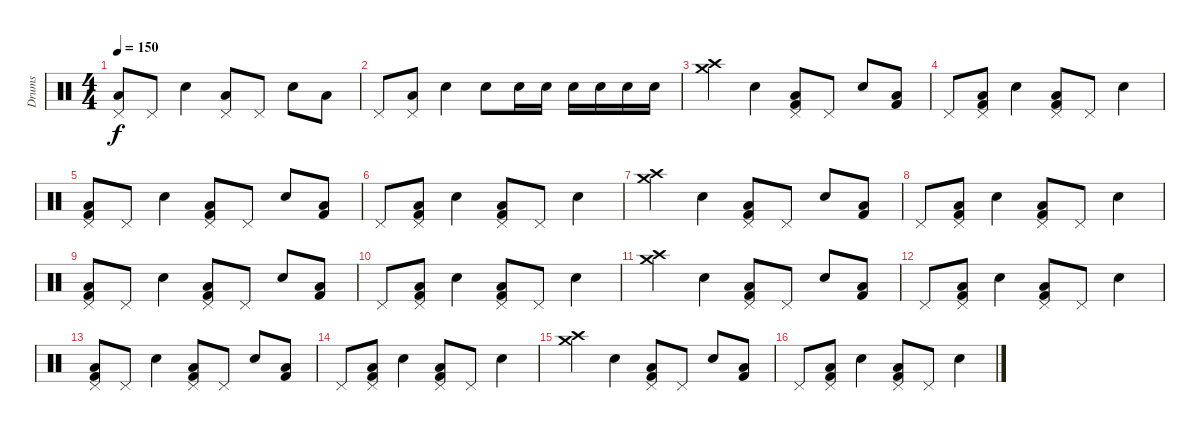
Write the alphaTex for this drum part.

\track ("Drums" "Drums") {instrument percussion}
\staff {score}
\articulation defaults
\ts (4 4)
\tempo 150
\clef neutral
\ks c
("Low Floor Tom (hit)" "Pedal Hi-Hat (hit)").8{dy f} "Pedal Hi-Hat (hit)".8 "Snare (hit) 2".4 ("Low Floor Tom (hit)" "Pedal Hi-Hat (hit)").8 "Pedal Hi-Hat (hit)".8 "Snare (hit) 2".8 "Low Floor Tom (hit)".8 |
"Pedal Hi-Hat (hit)".8 ("Low Floor Tom (hit)" "Pedal Hi-Hat (hit)").8 "Snare (hit) 2".4 "Snare (hit) 2".8 "Snare (hit) 2".16 "Snare (hit) 2".16 "Snare (hit) 2".16 "Snare (hit) 2".16 "Snare (hit) 2".16 "Snare (hit) 2".16 |
("Crash high (hit)" "Crash medium (hit)").4 "Snare (hit) 2".4 ("Pedal Hi-Hat (hit)" "Low Floor Tom (hit)" "Kick (hit) 2").8 "Pedal Hi-Hat (hit)".8 "Snare (hit) 2".8 ("Low Floor Tom (hit)" "Kick (hit) 2").8 |
"Pedal Hi-Hat (hit)".8 ("Pedal Hi-Hat (hit)" "Low Floor Tom (hit)" "Kick (hit) 2").8 "Snare (hit) 2".4 ("Pedal Hi-Hat (hit)" "Low Floor Tom (hit)" "Kick (hit) 2").8 "Pedal Hi-Hat (hit)".8 "Snare (hit) 2".4 |
("Pedal Hi-Hat (hit)" "Low Floor Tom (hit)" "Kick (hit) 2").8 "Pedal Hi-Hat (hit)".8 "Snare (hit) 2".4 ("Pedal Hi-Hat (hit)" "Low Floor Tom (hit)" "Kick (hit) 2").8 "Pedal Hi-Hat (hit)".8 "Snare (hit) 2".8 ("Low Floor Tom (hit)" "Kick (hit) 2").8 |
"Pedal Hi-Hat (hit)".8 ("Pedal Hi-Hat (hit)" "Low Floor Tom (hit)" "Kick (hit) 2").8 "Snare (hit) 2".4 ("Pedal Hi-Hat (hit)" "Low Floor Tom (hit)" "Kick (hit) 2").8 "Pedal Hi-Hat (hit)".8 "Snare (hit) 2".4 |
("Crash high (hit)" "Crash medium (hit)").4 "Snare (hit) 2".4 ("Pedal Hi-Hat (hit)" "Low Floor Tom (hit)" "Kick (hit) 2").8 "Pedal Hi-Hat (hit)".8 "Snare (hit) 2".8 ("Low Floor Tom (hit)" "Kick (hit) 2").8 |
"Pedal Hi-Hat (hit)".8 ("Pedal Hi-Hat (hit)" "Low Floor Tom (hit)" "Kick (hit) 2").8 "Snare (hit) 2".4 ("Pedal Hi-Hat (hit)" "Low Floor Tom (hit)" "Kick (hit) 2").8 "Pedal Hi-Hat (hit)".8 "Snare (hit) 2".4 |
("Pedal Hi-Hat (hit)" "Low Floor Tom (hit)" "Kick (hit) 2").8 "Pedal Hi-Hat (hit)".8 "Snare (hit) 2".4 ("Pedal Hi-Hat (hit)" "Low Floor Tom (hit)" "Kick (hit) 2").8 "Pedal Hi-Hat (hit)".8 "Snare (hit) 2".8 ("Low Floor Tom (hit)" "Kick (hit) 2").8 |
"Pedal Hi-Hat (hit)".8 ("Pedal Hi-Hat (hit)" "Low Floor Tom (hit)" "Kick (hit) 2").8 "Snare (hit) 2".4 ("Pedal Hi-Hat (hit)" "Low Floor Tom (hit)" "Kick (hit) 2").8 "Pedal Hi-Hat (hit)".8 "Snare (hit) 2".4 |
("Crash high (hit)" "Crash medium (hit)").4 "Snare (hit) 2".4 ("Pedal Hi-Hat (hit)" "Low Floor Tom (hit)" "Kick (hit) 2").8 "Pedal Hi-Hat (hit)".8 "Snare (hit) 2".8 ("Low Floor Tom (hit)" "Kick (hit) 2").8 |
"Pedal Hi-Hat (hit)".8 ("Pedal Hi-Hat (hit)" "Low Floor Tom (hit)" "Kick (hit) 2").8 "Snare (hit) 2".4 ("Pedal Hi-Hat (hit)" "Low Floor Tom (hit)" "Kick (hit) 2").8 "Pedal Hi-Hat (hit)".8 "Snare (hit) 2".4 |
("Pedal Hi-Hat (hit)" "Low Floor Tom (hit)" "Kick (hit) 2").8 "Pedal Hi-Hat (hit)".8 "Snare (hit) 2".4 ("Pedal Hi-Hat (hit)" "Low Floor Tom (hit)" "Kick (hit) 2").8 "Pedal Hi-Hat (hit)".8 "Snare (hit) 2".8 ("Low Floor Tom (hit)" "Kick (hit) 2").8 |
"Pedal Hi-Hat (hit)".8 ("Pedal Hi-Hat (hit)" "Low Floor Tom (hit)" "Kick (hit) 2").8 "Snare (hit) 2".4 ("Pedal Hi-Hat (hit)" "Low Floor Tom (hit)" "Kick (hit) 2").8 "Pedal Hi-Hat (hit)".8 "Snare (hit) 2".4 |
("Crash high (hit)" "Crash medium (hit)").4 "Snare (hit) 2".4 ("Pedal Hi-Hat (hit)" "Low Floor Tom (hit)" "Kick (hit) 2").8 "Pedal Hi-Hat (hit)".8 "Snare (hit) 2".8 ("Low Floor Tom (hit)" "Kick (hit) 2").8 |
"Pedal Hi-Hat (hit)".8 ("Pedal Hi-Hat (hit)" "Low Floor Tom (hit)" "Kick (hit) 2").8 "Snare (hit) 2".4 ("Pedal Hi-Hat (hit)" "Low Floor Tom (hit)" "Kick (hit) 2").8 "Pedal Hi-Hat (hit)".8 "Snare (hit) 2".4
